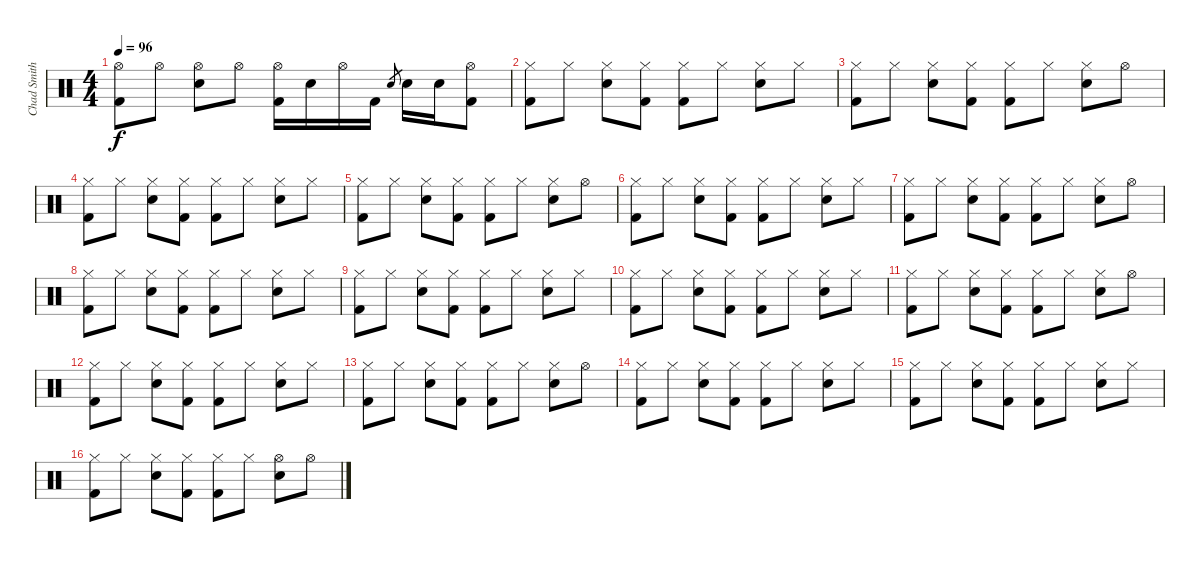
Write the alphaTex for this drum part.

\track ("Chad Smith" "Chad Smith") {instrument percussion}
\staff {score}
\articulation defaults
\ts (4 4)
\tempo 96
\clef neutral
\ks c
("Hi-Hat (open)" "Kick (hit) 2").8{dy f} "Hi-Hat (open)".8 ("Hi-Hat (open)" "Electric Snare (hit)").8 "Hi-Hat (open)".8 ("Hi-Hat (open)" "Kick (hit) 2").16 "Electric Snare (hit)".16 "Hi-Hat (open)".16 "Kick (hit) 2".16 "Electric Snare (hit)".8{gr} "Electric Snare (hit)".16 "Electric Snare (hit)".16 ("Hi-Hat (open)" "Kick (hit) 2").8 |
("Hi-Hat (closed)" "Kick (hit) 2").8 "Hi-Hat (closed)".8 ("Hi-Hat (closed)" "Electric Snare (hit)").8 ("Hi-Hat (closed)" "Kick (hit) 2").8 ("Hi-Hat (closed)" "Kick (hit) 2").8 "Hi-Hat (closed)".8 ("Hi-Hat (closed)" "Electric Snare (hit)").8 "Hi-Hat (closed)".8 |
("Hi-Hat (closed)" "Kick (hit) 2").8 "Hi-Hat (closed)".8 ("Hi-Hat (closed)" "Electric Snare (hit)").8 ("Hi-Hat (closed)" "Kick (hit) 2").8 ("Hi-Hat (closed)" "Kick (hit) 2").8 "Hi-Hat (closed)".8 ("Hi-Hat (closed)" "Electric Snare (hit)").8 "Hi-Hat (open)".8 |
("Hi-Hat (closed)" "Kick (hit) 2").8 "Hi-Hat (closed)".8 ("Hi-Hat (closed)" "Electric Snare (hit)").8 ("Hi-Hat (closed)" "Kick (hit) 2").8 ("Hi-Hat (closed)" "Kick (hit) 2").8 "Hi-Hat (closed)".8 ("Hi-Hat (closed)" "Electric Snare (hit)").8 "Hi-Hat (closed)".8 |
("Hi-Hat (closed)" "Kick (hit) 2").8 "Hi-Hat (closed)".8 ("Hi-Hat (closed)" "Electric Snare (hit)").8 ("Hi-Hat (closed)" "Kick (hit) 2").8 ("Hi-Hat (closed)" "Kick (hit) 2").8 "Hi-Hat (closed)".8 ("Hi-Hat (closed)" "Electric Snare (hit)").8 "Hi-Hat (open)".8 |
("Hi-Hat (closed)" "Kick (hit) 2").8 "Hi-Hat (closed)".8 ("Hi-Hat (closed)" "Electric Snare (hit)").8 ("Hi-Hat (closed)" "Kick (hit) 2").8 ("Hi-Hat (closed)" "Kick (hit) 2").8 "Hi-Hat (closed)".8 ("Hi-Hat (closed)" "Electric Snare (hit)").8 "Hi-Hat (closed)".8 |
("Hi-Hat (closed)" "Kick (hit) 2").8 "Hi-Hat (closed)".8 ("Hi-Hat (closed)" "Electric Snare (hit)").8 ("Hi-Hat (closed)" "Kick (hit) 2").8 ("Hi-Hat (closed)" "Kick (hit) 2").8 "Hi-Hat (closed)".8 ("Hi-Hat (closed)" "Electric Snare (hit)").8 "Hi-Hat (open)".8 |
("Hi-Hat (closed)" "Kick (hit) 2").8 "Hi-Hat (closed)".8 ("Hi-Hat (closed)" "Electric Snare (hit)").8 ("Hi-Hat (closed)" "Kick (hit) 2").8 ("Hi-Hat (closed)" "Kick (hit) 2").8 "Hi-Hat (closed)".8 ("Hi-Hat (closed)" "Electric Snare (hit)").8 "Hi-Hat (closed)".8 |
("Hi-Hat (closed)" "Kick (hit) 2").8 "Hi-Hat (closed)".8 ("Hi-Hat (closed)" "Electric Snare (hit)").8 ("Hi-Hat (closed)" "Kick (hit) 2").8 ("Hi-Hat (closed)" "Kick (hit) 2").8 "Hi-Hat (closed)".8 ("Hi-Hat (closed)" "Electric Snare (hit)").8 "Hi-Hat (closed)".8 |
("Hi-Hat (closed)" "Kick (hit) 2").8 "Hi-Hat (closed)".8 ("Hi-Hat (closed)" "Electric Snare (hit)").8 ("Hi-Hat (closed)" "Kick (hit) 2").8 ("Hi-Hat (closed)" "Kick (hit) 2").8 "Hi-Hat (closed)".8 ("Hi-Hat (closed)" "Electric Snare (hit)").8 "Hi-Hat (closed)".8 |
("Hi-Hat (closed)" "Kick (hit) 2").8 "Hi-Hat (closed)".8 ("Hi-Hat (closed)" "Electric Snare (hit)").8 ("Hi-Hat (closed)" "Kick (hit) 2").8 ("Hi-Hat (closed)" "Kick (hit) 2").8 "Hi-Hat (closed)".8 ("Hi-Hat (closed)" "Electric Snare (hit)").8 "Hi-Hat (open)".8 |
("Hi-Hat (closed)" "Kick (hit) 2").8 "Hi-Hat (closed)".8 ("Hi-Hat (closed)" "Electric Snare (hit)").8 ("Hi-Hat (closed)" "Kick (hit) 2").8 ("Hi-Hat (closed)" "Kick (hit) 2").8 "Hi-Hat (closed)".8 ("Hi-Hat (closed)" "Electric Snare (hit)").8 "Hi-Hat (closed)".8 |
("Hi-Hat (closed)" "Kick (hit) 2").8 "Hi-Hat (closed)".8 ("Hi-Hat (closed)" "Electric Snare (hit)").8 ("Hi-Hat (closed)" "Kick (hit) 2").8 ("Hi-Hat (closed)" "Kick (hit) 2").8 "Hi-Hat (closed)".8 ("Hi-Hat (closed)" "Electric Snare (hit)").8 "Hi-Hat (open)".8 |
("Hi-Hat (closed)" "Kick (hit) 2").8 "Hi-Hat (closed)".8 ("Hi-Hat (closed)" "Electric Snare (hit)").8 ("Hi-Hat (closed)" "Kick (hit) 2").8 ("Hi-Hat (closed)" "Kick (hit) 2").8 "Hi-Hat (closed)".8 ("Hi-Hat (closed)" "Electric Snare (hit)").8 "Hi-Hat (closed)".8 |
("Hi-Hat (closed)" "Kick (hit) 2").8 "Hi-Hat (closed)".8 ("Hi-Hat (closed)" "Electric Snare (hit)").8 ("Hi-Hat (closed)" "Kick (hit) 2").8 ("Hi-Hat (closed)" "Kick (hit) 2").8 "Hi-Hat (closed)".8 ("Hi-Hat (closed)" "Electric Snare (hit)").8 "Hi-Hat (closed)".8 |
("Hi-Hat (closed)" "Kick (hit) 2").8 "Hi-Hat (closed)".8 ("Hi-Hat (closed)" "Electric Snare (hit)").8 ("Hi-Hat (closed)" "Kick (hit) 2").8 ("Hi-Hat (closed)" "Kick (hit) 2").8 "Hi-Hat (closed)".8 ("Hi-Hat (open)" "Electric Snare (hit)").8 "Hi-Hat (open)".8
